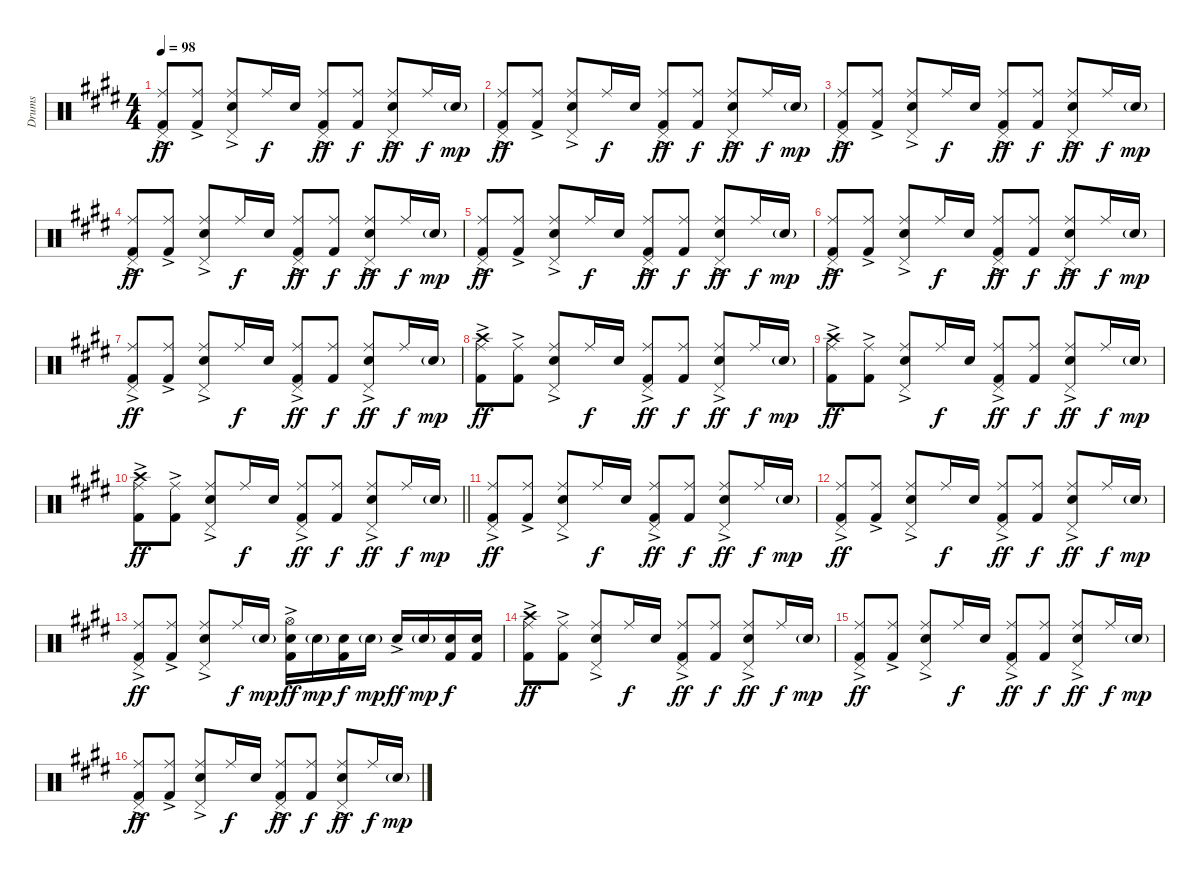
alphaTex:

\track ("Drums" "Drums") {instrument percussion}
\staff {score}
\articulation defaults
\ts (4 4)
\tempo 98
\clef neutral
\ks e
("Pedal Hi-Hat (hit)" "Ride (middle)" "Kick (hit) 2"{ac}).8{dy ff} ("Ride (middle)" "Kick (hit) 2"{ac}).8 ("Pedal Hi-Hat (hit)" "Snare (hit) 2"{ac} "Ride (middle)").8 "Ride (middle)".16{dy f} "Snare (hit) 2".16 ("Pedal Hi-Hat (hit)" "Ride (middle)" "Kick (hit) 2"{ac}).8{dy ff} ("Ride (middle)" "Kick (hit) 2").8{dy f} ("Pedal Hi-Hat (hit)" "Snare (hit) 2"{ac} "Ride (middle)").8{dy ff} "Ride (middle)".16{dy f} "Snare (hit) 2"{g}.16{dy mp} |
("Pedal Hi-Hat (hit)" "Ride (middle)" "Kick (hit) 2"{ac}).8{dy ff} ("Ride (middle)" "Kick (hit) 2"{ac}).8 ("Pedal Hi-Hat (hit)" "Snare (hit) 2"{ac} "Ride (middle)").8 "Ride (middle)".16{dy f} "Snare (hit) 2".16 ("Pedal Hi-Hat (hit)" "Ride (middle)" "Kick (hit) 2"{ac}).8{dy ff} ("Ride (middle)" "Kick (hit) 2").8{dy f} ("Pedal Hi-Hat (hit)" "Snare (hit) 2"{ac} "Ride (middle)").8{dy ff} "Ride (middle)".16{dy f} "Snare (hit) 2"{g}.16{dy mp} |
("Pedal Hi-Hat (hit)" "Ride (middle)" "Kick (hit) 2"{ac}).8{dy ff} ("Ride (middle)" "Kick (hit) 2"{ac}).8 ("Pedal Hi-Hat (hit)" "Snare (hit) 2"{ac} "Ride (middle)").8 "Ride (middle)".16{dy f} "Snare (hit) 2".16 ("Pedal Hi-Hat (hit)" "Ride (middle)" "Kick (hit) 2"{ac}).8{dy ff} ("Ride (middle)" "Kick (hit) 2").8{dy f} ("Pedal Hi-Hat (hit)" "Snare (hit) 2"{ac} "Ride (middle)").8{dy ff} "Ride (middle)".16{dy f} "Snare (hit) 2"{g}.16{dy mp} |
("Pedal Hi-Hat (hit)" "Ride (middle)" "Kick (hit) 2"{ac}).8{dy ff} ("Ride (middle)" "Kick (hit) 2"{ac}).8 ("Pedal Hi-Hat (hit)" "Snare (hit) 2"{ac} "Ride (middle)").8 "Ride (middle)".16{dy f} "Snare (hit) 2".16 ("Pedal Hi-Hat (hit)" "Ride (middle)" "Kick (hit) 2"{ac}).8{dy ff} ("Ride (middle)" "Kick (hit) 2").8{dy f} ("Pedal Hi-Hat (hit)" "Snare (hit) 2"{ac} "Ride (middle)").8{dy ff} "Ride (middle)".16{dy f} "Snare (hit) 2"{g}.16{dy mp} |
("Pedal Hi-Hat (hit)" "Ride (middle)" "Kick (hit) 2"{ac}).8{dy ff} ("Ride (middle)" "Kick (hit) 2"{ac}).8 ("Pedal Hi-Hat (hit)" "Snare (hit) 2"{ac} "Ride (middle)").8 "Ride (middle)".16{dy f} "Snare (hit) 2".16 ("Pedal Hi-Hat (hit)" "Ride (middle)" "Kick (hit) 2"{ac}).8{dy ff} ("Ride (middle)" "Kick (hit) 2").8{dy f} ("Pedal Hi-Hat (hit)" "Snare (hit) 2"{ac} "Ride (middle)").8{dy ff} "Ride (middle)".16{dy f} "Snare (hit) 2"{g}.16{dy mp} |
("Pedal Hi-Hat (hit)" "Ride (middle)" "Kick (hit) 2"{ac}).8{dy ff} ("Ride (middle)" "Kick (hit) 2"{ac}).8 ("Pedal Hi-Hat (hit)" "Snare (hit) 2"{ac} "Ride (middle)").8 "Ride (middle)".16{dy f} "Snare (hit) 2".16 ("Pedal Hi-Hat (hit)" "Ride (middle)" "Kick (hit) 2"{ac}).8{dy ff} ("Ride (middle)" "Kick (hit) 2").8{dy f} ("Pedal Hi-Hat (hit)" "Snare (hit) 2"{ac} "Ride (middle)").8{dy ff} "Ride (middle)".16{dy f} "Snare (hit) 2"{g}.16{dy mp} |
("Pedal Hi-Hat (hit)" "Ride (middle)" "Kick (hit) 2"{ac}).8{dy ff} ("Ride (middle)" "Kick (hit) 2"{ac}).8 ("Pedal Hi-Hat (hit)" "Snare (hit) 2"{ac} "Ride (middle)").8 "Ride (middle)".16{dy f} "Snare (hit) 2".16 ("Pedal Hi-Hat (hit)" "Ride (middle)" "Kick (hit) 2"{ac}).8{dy ff} ("Ride (middle)" "Kick (hit) 2").8{dy f} ("Pedal Hi-Hat (hit)" "Snare (hit) 2"{ac} "Ride (middle)").8{dy ff} "Ride (middle)".16{dy f} "Snare (hit) 2"{g}.16{dy mp} |
("Crash high (hit)" "Ride (middle)" "Kick (hit) 2"{ac}).8{dy ff} ("Ride (middle)" "Kick (hit) 2"{ac}).8 ("Pedal Hi-Hat (hit)" "Snare (hit) 2"{ac} "Ride (middle)").8 "Ride (middle)".16{dy f} "Snare (hit) 2".16 ("Pedal Hi-Hat (hit)" "Ride (middle)" "Kick (hit) 2"{ac}).8{dy ff} ("Ride (middle)" "Kick (hit) 2").8{dy f} ("Pedal Hi-Hat (hit)" "Snare (hit) 2"{ac} "Ride (middle)").8{dy ff} "Ride (middle)".16{dy f} "Snare (hit) 2"{g}.16{dy mp} |
("Crash high (hit)" "Ride (middle)" "Kick (hit) 2"{ac}).8{dy ff} ("Ride (middle)" "Kick (hit) 2"{ac}).8 ("Pedal Hi-Hat (hit)" "Snare (hit) 2"{ac} "Ride (middle)").8 "Ride (middle)".16{dy f} "Snare (hit) 2".16 ("Pedal Hi-Hat (hit)" "Ride (middle)" "Kick (hit) 2"{ac}).8{dy ff} ("Ride (middle)" "Kick (hit) 2").8{dy f} ("Pedal Hi-Hat (hit)" "Snare (hit) 2"{ac} "Ride (middle)").8{dy ff} "Ride (middle)".16{dy f} "Snare (hit) 2"{g}.16{dy mp} |
\barLineRight lightlight
("Crash high (hit)" "Ride (middle)" "Kick (hit) 2"{ac}).8{dy ff} ("Ride (middle)" "Kick (hit) 2"{ac}).8 ("Pedal Hi-Hat (hit)" "Snare (hit) 2"{ac} "Ride (middle)").8 "Ride (middle)".16{dy f} "Snare (hit) 2".16 ("Pedal Hi-Hat (hit)" "Ride (middle)" "Kick (hit) 2"{ac}).8{dy ff} ("Ride (middle)" "Kick (hit) 2").8{dy f} ("Pedal Hi-Hat (hit)" "Snare (hit) 2"{ac} "Ride (middle)").8{dy ff} "Ride (middle)".16{dy f} "Snare (hit) 2"{g}.16{dy mp} |
("Pedal Hi-Hat (hit)" "Ride (middle)" "Kick (hit) 2"{ac}).8{dy ff} ("Ride (middle)" "Kick (hit) 2"{ac}).8 ("Pedal Hi-Hat (hit)" "Snare (hit) 2"{ac} "Ride (middle)").8 "Ride (middle)".16{dy f} "Snare (hit) 2".16 ("Pedal Hi-Hat (hit)" "Ride (middle)" "Kick (hit) 2"{ac}).8{dy ff} ("Ride (middle)" "Kick (hit) 2").8{dy f} ("Pedal Hi-Hat (hit)" "Snare (hit) 2"{ac} "Ride (middle)").8{dy ff} "Ride (middle)".16{dy f} "Snare (hit) 2"{g}.16{dy mp} |
("Pedal Hi-Hat (hit)" "Ride (middle)" "Kick (hit) 2"{ac}).8{dy ff} ("Ride (middle)" "Kick (hit) 2"{ac}).8 ("Pedal Hi-Hat (hit)" "Snare (hit) 2"{ac} "Ride (middle)").8 "Ride (middle)".16{dy f} "Snare (hit) 2".16 ("Pedal Hi-Hat (hit)" "Ride (middle)" "Kick (hit) 2"{ac}).8{dy ff} ("Ride (middle)" "Kick (hit) 2").8{dy f} ("Pedal Hi-Hat (hit)" "Snare (hit) 2"{ac} "Ride (middle)").8{dy ff} "Ride (middle)".16{dy f} "Snare (hit) 2"{g}.16{dy mp} |
("Pedal Hi-Hat (hit)" "Ride (middle)" "Kick (hit) 2"{ac}).8{dy ff} ("Ride (middle)" "Kick (hit) 2"{ac}).8 ("Pedal Hi-Hat (hit)" "Snare (hit) 2"{ac} "Ride (middle)").8 "Ride (middle)".16{dy f} "Snare (hit) 2"{g}.16{dy mp} ("Hi-Hat (open)" "Snare (hit) 2" "Kick (hit) 2"{ac}).16{dy ff} "Snare (hit) 2"{g}.16{dy mp} ("Snare (hit) 2" "Kick (hit) 2").16{dy f} "Snare (hit) 2"{g}.16{dy mp} "Snare (hit) 2"{ac}.16{dy ff} "Snare (hit) 2"{g}.16{dy mp} ("Snare (hit) 2" "Kick (hit) 2").16{dy f} ("Snare (hit) 2" "Kick (hit) 2").16 |
("Crash high (hit)" "Ride (middle)" "Kick (hit) 2"{ac}).8{dy ff} ("Ride (middle)" "Kick (hit) 2"{ac}).8 ("Pedal Hi-Hat (hit)" "Snare (hit) 2"{ac} "Ride (middle)").8 "Ride (middle)".16{dy f} "Snare (hit) 2".16 ("Pedal Hi-Hat (hit)" "Ride (middle)" "Kick (hit) 2"{ac}).8{dy ff} ("Ride (middle)" "Kick (hit) 2").8{dy f} ("Pedal Hi-Hat (hit)" "Snare (hit) 2"{ac} "Ride (middle)").8{dy ff} "Ride (middle)".16{dy f} "Snare (hit) 2"{g}.16{dy mp} |
("Pedal Hi-Hat (hit)" "Ride (middle)" "Kick (hit) 2"{ac}).8{dy ff} ("Ride (middle)" "Kick (hit) 2"{ac}).8 ("Pedal Hi-Hat (hit)" "Snare (hit) 2"{ac} "Ride (middle)").8 "Ride (middle)".16{dy f} "Snare (hit) 2".16 ("Pedal Hi-Hat (hit)" "Ride (middle)" "Kick (hit) 2"{ac}).8{dy ff} ("Ride (middle)" "Kick (hit) 2").8{dy f} ("Pedal Hi-Hat (hit)" "Snare (hit) 2"{ac} "Ride (middle)").8{dy ff} "Ride (middle)".16{dy f} "Snare (hit) 2"{g}.16{dy mp} |
("Pedal Hi-Hat (hit)" "Ride (middle)" "Kick (hit) 2"{ac}).8{dy ff} ("Ride (middle)" "Kick (hit) 2"{ac}).8 ("Pedal Hi-Hat (hit)" "Snare (hit) 2"{ac} "Ride (middle)").8 "Ride (middle)".16{dy f} "Snare (hit) 2".16 ("Pedal Hi-Hat (hit)" "Ride (middle)" "Kick (hit) 2"{ac}).8{dy ff} ("Ride (middle)" "Kick (hit) 2").8{dy f} ("Pedal Hi-Hat (hit)" "Snare (hit) 2"{ac} "Ride (middle)").8{dy ff} "Ride (middle)".16{dy f} "Snare (hit) 2"{g}.16{dy mp}
